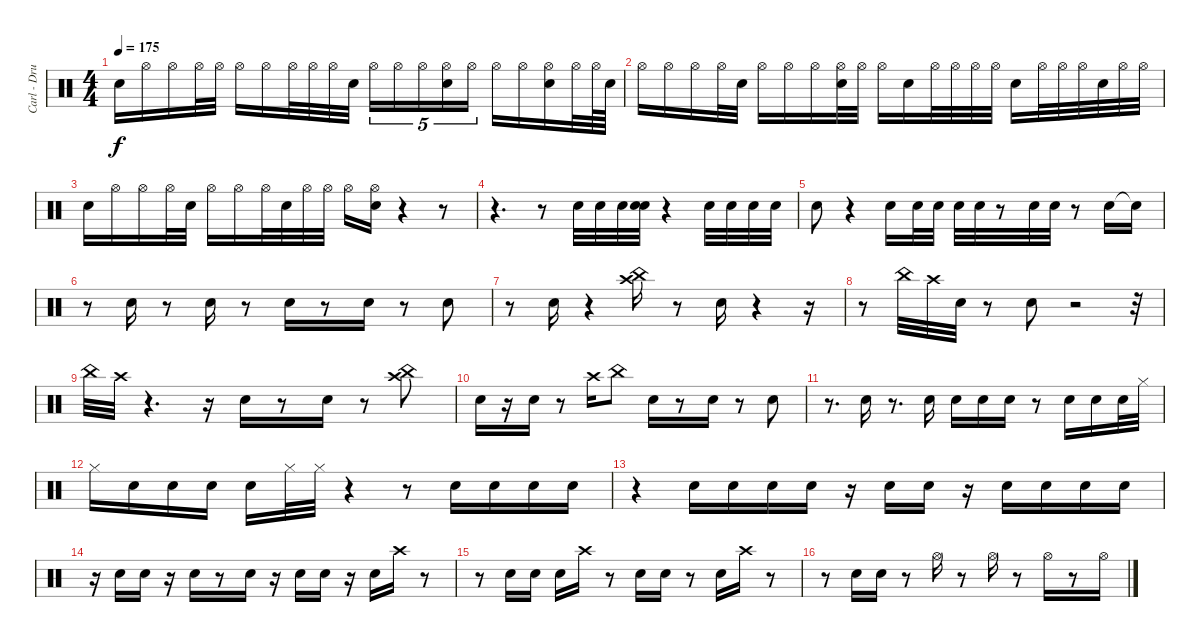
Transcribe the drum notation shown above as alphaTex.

\track ("Carl - Drums II" "Carl - Dru") {instrument percussion}
\staff {score}
\articulation defaults
\ts (4 4)
\tempo 175
\clef neutral
\ks c "Snare (hit) 2".16{dy f} "Hi-Hat (open)".16 "Hi-Hat (open)".16 "Hi-Hat (open)".32 "Hi-Hat (open)".32 "Hi-Hat (open)".16 "Hi-Hat (open)".16 "Hi-Hat (open)".32 "Hi-Hat (open)".32 "Hi-Hat (open)".32 "Snare (hit) 2".32 "Hi-Hat (open)".16{tu (5 4)} "Hi-Hat (open)".16{tu (5 4)} "Hi-Hat (open)".16{tu (5 4)}
("Snare (hit) 2" "Hi-Hat (open)").16{tu (5 4)} "Hi-Hat (open)".16{tu (5 4)} "Hi-Hat (open)".16 "Hi-Hat (open)".16 ("Hi-Hat (open)" "Snare (hit) 2").16 "Hi-Hat (open)".32 "Hi-Hat (open)".64 "Snare (hit) 2".64 |
"Hi-Hat (open)".16 "Hi-Hat (open)".16 "Hi-Hat (open)".16 "Hi-Hat (open)".32 "Snare (hit) 2".32 "Hi-Hat (open)".16 "Hi-Hat (open)".16 "Hi-Hat (open)".16 ("Snare (hit) 2" "Hi-Hat (open)").32 "Hi-Hat (open)".32 "Hi-Hat (open)".16 "Snare (hit) 2".16 "Hi-Hat (open)".32 "Hi-Hat (open)".32 "Hi-Hat (open)".32 "Hi-Hat (open)".32 "Snare (hit) 2".16 "Hi-Hat (open)".32 "Hi-Hat (open)".32 "Hi-Hat (open)".32 "Snare (hit) 2".32 "Hi-Hat (open)".32 "Hi-Hat (open)".32 |
"Snare (hit) 2".16 "Hi-Hat (open)".16 "Hi-Hat (open)".16 "Hi-Hat (open)".32 "Snare (hit) 2".32 "Hi-Hat (open)".16 "Hi-Hat (open)".16 "Hi-Hat (open)".32 "Snare (hit) 2".32 "Hi-Hat (open)".32 "Hi-Hat (open)".32 "Hi-Hat (open)".16 ("Snare (hit) 2" "Hi-Hat (open)").16 r.4 r.8 |
r.4{d} r.8 "Snare (hit) 2".32 "Snare (hit) 2".32 "Snare (hit) 2".32 ("Snare (hit) 2" "Snare (hit) 2").32 r.4 "Snare (hit) 2".32 "Snare (hit) 2".32 "Snare (hit) 2".32 "Snare (hit) 2".32 |
"Snare (hit) 2".8 r.4 "Snare (hit) 2".16 "Snare (hit) 2".32 "Snare (hit) 2".32 "Snare (hit) 2".32 "Snare (hit) 2".32 r.8 "Snare (hit) 2".32 "Snare (hit) 2".32 r.8 "Snare (hit) 2".16 "Snare (hit)"{t}.16 |
r.8 "Snare (hit) 2".16 r.8 "Snare (hit) 2".16 r.8 "Snare (hit) 2".16 r.8 "Snare (hit) 2".16 r.8 "Snare (hit) 2".8 |
r.8 "Snare (hit) 2".16 r.4 ("China (hit)" "Crash high (hit)").16 r.8 "Snare (hit) 2".16 r.4 r.16 |
r.8 "China (hit)".32 "Crash high (hit)".32 "Snare (hit) 2".32 r.8 "Snare (hit) 2".8 r.2 r.32 |
"China (hit)".32 "Crash high (hit)".32 r.4{d} r.16 "Snare (hit) 2".16 r.8 "Snare (hit) 2".16 r.8 ("Crash high (hit)" "China (hit)").8 |
"Snare (hit) 2".16 r.16 "Snare (hit) 2".16 r.8 "Crash high (hit)".16 "China (hit)".8 "Snare (hit) 2".16 r.8 "Snare (hit) 2".16 r.8 "Snare (hit) 2".8 |
r.8{d} "Snare (hit) 2".16 r.8{d} "Snare (hit) 2".16 "Snare (hit) 2".16 "Snare (hit) 2".16 "Snare (hit) 2".16 r.8 "Snare (hit) 2".16 "Snare (hit) 2".16 "Snare (hit) 2".32 "Hi-Hat (closed)".32 |
"Hi-Hat (closed)".16 "Snare (hit) 2".16 "Snare (hit) 2".16 "Snare (hit) 2".16 "Snare (hit) 2".16 "Hi-Hat (closed)".32 "Hi-Hat (closed)".32 r.4 r.8 "Snare (hit) 2".16 "Snare (hit) 2".16 "Snare (hit) 2".16 "Snare (hit) 2".16 |
r.4 "Snare (hit) 2".16 "Snare (hit) 2".16 "Snare (hit) 2".16 "Snare (hit) 2".16 r.16 "Snare (hit) 2".16 "Snare (hit) 2".16 r.16 "Snare (hit) 2".16 "Snare (hit) 2".16 "Snare (hit) 2".16 "Snare (hit) 2".16 |
r.16 "Snare (hit) 2".16 "Snare (hit) 2".16 r.16 "Snare (hit) 2".16 r.8 "Snare (hit) 2".16 r.16 "Snare (hit) 2".16 "Snare (hit) 2".16 r.16 "Snare (hit) 2".16 "Crash high (hit)".16 r.8 |
r.8 "Snare (hit) 2".16 "Snare (hit) 2".16 "Snare (hit) 2".16 "Crash high (hit)".16 r.8 "Snare (hit) 2".16 "Snare (hit) 2".16 r.8 "Snare (hit) 2".16 "Crash high (hit)".16 r.8 |
r.8 "Snare (hit) 2".16 "Snare (hit) 2".16 r.8 "Hi-Hat (open)".16 r.8 "Hi-Hat (open)".16 r.8 "Hi-Hat (open)".16 r.8 "Hi-Hat (open)".16
